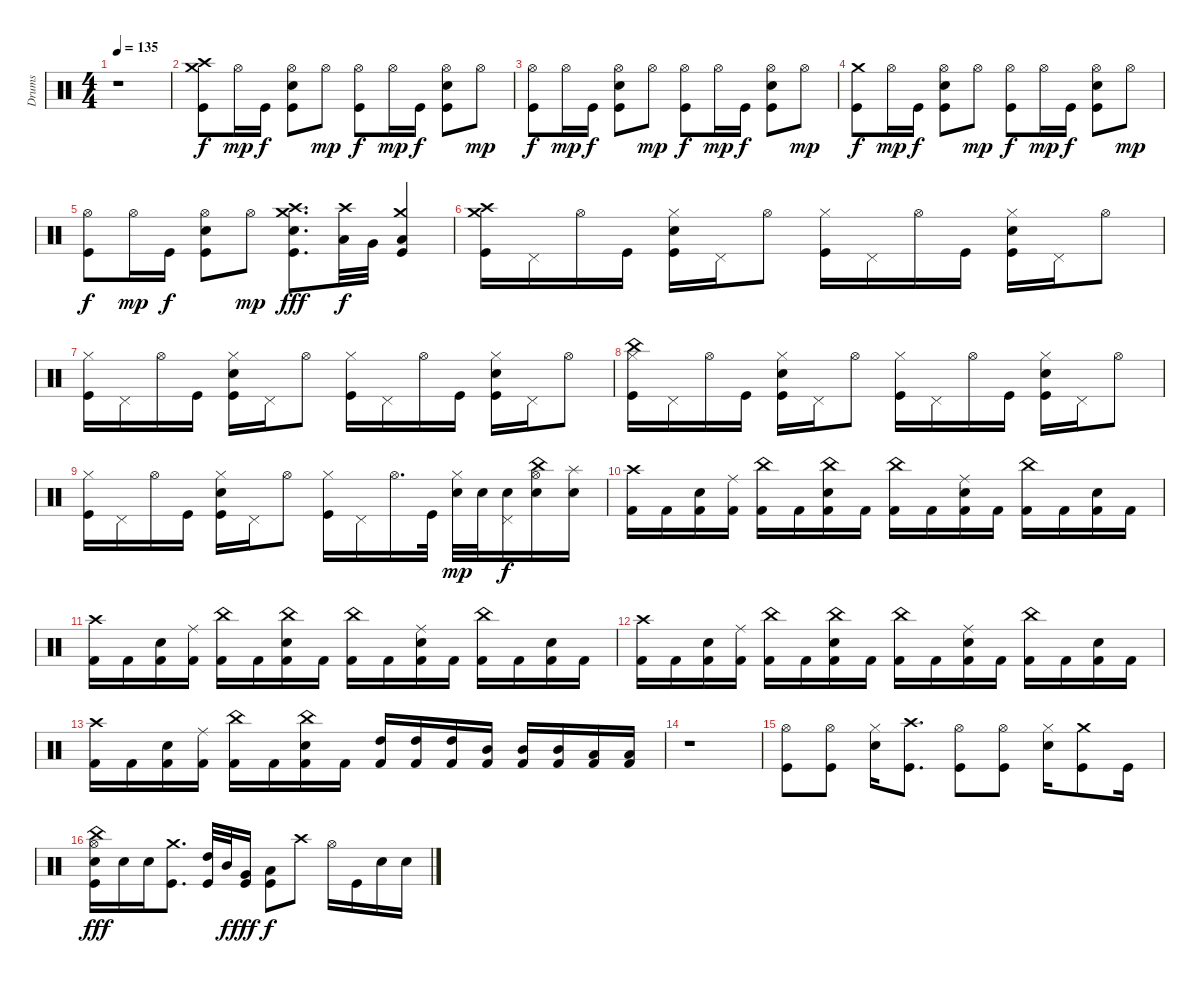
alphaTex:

\track ("Drums" "Drums") {instrument percussion}
\staff {score}
\articulation defaults
\ts (4 4)
\tempo 135
\clef neutral
\ks c
r.1{dy f} |
("Kick (hit)" "Crash medium (hit)" "Crash high (hit)").8 "Hi-Hat (open)".16{dy mp} "Kick (hit)".16{dy f} ("Snare (hit) 2" "Kick (hit)" "Hi-Hat (open)").8 "Hi-Hat (open)".8{dy mp} ("Kick (hit)" "Hi-Hat (open)").8{dy f} "Hi-Hat (open)".16{dy mp} "Kick (hit)".16{dy f} ("Snare (hit) 2" "Kick (hit)" "Hi-Hat (open)").8 "Hi-Hat (open)".8{dy mp} |
("Hi-Hat (open)" "Kick (hit)").8{dy f} "Hi-Hat (open)".16{dy mp} "Kick (hit)".16{dy f} ("Hi-Hat (open)" "Snare (hit) 2" "Kick (hit)").8 "Hi-Hat (open)".8{dy mp} ("Hi-Hat (open)" "Kick (hit)").8{dy f} "Hi-Hat (open)".16{dy mp} "Kick (hit)".16{dy f} ("Hi-Hat (open)" "Snare (hit) 2" "Kick (hit)").8 "Hi-Hat (open)".8{dy mp} |
("Crash medium (hit)" "Kick (hit)").8{dy f} "Hi-Hat (open)".16{dy mp} "Kick (hit)".16{dy f} ("Snare (hit) 2" "Kick (hit)" "Hi-Hat (open)").8 "Hi-Hat (open)".8{dy mp} ("Kick (hit)" "Hi-Hat (open)").8{dy f} "Hi-Hat (open)".16{dy mp} "Kick (hit)".16{dy f} ("Snare (hit) 2" "Kick (hit)" "Hi-Hat (open)").8 "Hi-Hat (open)".8{dy mp} |
("Kick (hit)" "Hi-Hat (open)").8{dy f} "Hi-Hat (open)".16{dy mp} "Kick (hit)".16{dy f} ("Snare (hit) 2" "Kick (hit)" "Hi-Hat (open)").8 "Hi-Hat (open)".8{dy mp} ("Crash medium (hit)" "Crash high (hit)" "Snare (hit) 2" "Kick (hit)").8{d dy fff} ("Crash high (hit)" "Low Tom (hit)").32{dy f} "Very Low Tom (hit)".32 ("Crash medium (hit)" "Kick (hit)" "Low Floor Tom (hit)").4 |
("Crash medium (hit)" "Crash high (hit)" "Kick (hit)").16 "Pedal Hi-Hat (hit)".16 "Hi-Hat (open)".16 "Kick (hit)".16 ("Hi-Hat (closed)" "Snare (hit) 2" "Kick (hit)").16 "Pedal Hi-Hat (hit)".16 "Hi-Hat (open)".8 ("Hi-Hat (closed)" "Kick (hit)").16 "Pedal Hi-Hat (hit)".16 "Hi-Hat (open)".16 "Kick (hit)".16 ("Hi-Hat (closed)" "Snare (hit) 2" "Kick (hit)").16 "Pedal Hi-Hat (hit)".16 "Hi-Hat (open)".8 |
("Hi-Hat (closed)" "Kick (hit)").16 "Pedal Hi-Hat (hit)".16 "Hi-Hat (open)".16 "Kick (hit)".16 ("Hi-Hat (closed)" "Snare (hit) 2" "Kick (hit)").16 "Pedal Hi-Hat (hit)".16 "Hi-Hat (open)".8 ("Hi-Hat (closed)" "Kick (hit)").16 "Pedal Hi-Hat (hit)".16 "Hi-Hat (open)".16 "Kick (hit)".16 ("Hi-Hat (closed)" "Snare (hit) 2" "Kick (hit)").16 "Pedal Hi-Hat (hit)".16 "Hi-Hat (open)".8 |
("China (hit)" "Hi-Hat (closed)" "Kick (hit)").16 "Pedal Hi-Hat (hit)".16 "Hi-Hat (open)".16 "Kick (hit)".16 ("Hi-Hat (closed)" "Snare (hit) 2" "Kick (hit)").16 "Pedal Hi-Hat (hit)".16 "Hi-Hat (open)".8 ("Hi-Hat (closed)" "Kick (hit)").16 "Pedal Hi-Hat (hit)".16 "Hi-Hat (open)".16 "Kick (hit)".16 ("Hi-Hat (closed)" "Snare (hit) 2" "Kick (hit)").16 "Pedal Hi-Hat (hit)".16 "Hi-Hat (open)".8 |
("Hi-Hat (closed)" "Kick (hit)").16 "Pedal Hi-Hat (hit)".16 "Hi-Hat (open)".16 "Kick (hit)".16 ("Hi-Hat (closed)" "Snare (hit) 2" "Kick (hit)").16 "Pedal Hi-Hat (hit)".16 "Hi-Hat (open)".8 ("Hi-Hat (closed)" "Kick (hit)").16 "Pedal Hi-Hat (hit)".16 "Hi-Hat (open)".16{d} "Kick (hit)".32 ("Hi-Hat (closed)" "Snare (hit) 2").32{dy mp} "Snare (hit) 2".32 ("Pedal Hi-Hat (hit)" "Snare (hit) 2").16{dy f} ("Hi-Hat (open)" "China (hit)" "Snare (hit) 2").16 ("Splash (hit)" "Snare (hit) 2").16 |
("Crash high (hit)" "Kick (hit) 2").16 "Kick (hit) 2".16 ("Snare (hit) 2" "Kick (hit) 2").16 ("Ride (middle)" "Kick (hit) 2").16 ("China (hit)" "Kick (hit) 2").16 "Kick (hit) 2".16 ("China (hit)" "Snare (hit) 2" "Kick (hit) 2").16 "Kick (hit) 2".16 ("China (hit)" "Kick (hit) 2").16 "Kick (hit) 2".16 ("Ride (middle)" "Snare (hit) 2" "Kick (hit) 2").16 "Kick (hit) 2".16 ("China (hit)" "Kick (hit) 2").16 "Kick (hit) 2".16 ("Snare (hit) 2" "Kick (hit) 2").16 "Kick (hit) 2".16 |
("Crash high (hit)" "Kick (hit) 2").16 "Kick (hit) 2".16 ("Snare (hit) 2" "Kick (hit) 2").16 ("Ride (middle)" "Kick (hit) 2").16 ("China (hit)" "Kick (hit) 2").16 "Kick (hit) 2".16 ("China (hit)" "Snare (hit) 2" "Kick (hit) 2").16 "Kick (hit) 2".16 ("China (hit)" "Kick (hit) 2").16 "Kick (hit) 2".16 ("Ride (middle)" "Snare (hit) 2" "Kick (hit) 2").16 "Kick (hit) 2".16 ("China (hit)" "Kick (hit) 2").16 "Kick (hit) 2".16 ("Snare (hit) 2" "Kick (hit) 2").16 "Kick (hit) 2".16 |
("Crash high (hit)" "Kick (hit) 2").16 "Kick (hit) 2".16 ("Snare (hit) 2" "Kick (hit) 2").16 ("Ride (middle)" "Kick (hit) 2").16 ("China (hit)" "Kick (hit) 2").16 "Kick (hit) 2".16 ("China (hit)" "Snare (hit) 2" "Kick (hit) 2").16 "Kick (hit) 2".16 ("China (hit)" "Kick (hit) 2").16 "Kick (hit) 2".16 ("Ride (middle)" "Snare (hit) 2" "Kick (hit) 2").16 "Kick (hit) 2".16 ("China (hit)" "Kick (hit) 2").16 "Kick (hit) 2".16 ("Snare (hit) 2" "Kick (hit) 2").16 "Kick (hit) 2".16 |
("Crash high (hit)" "Kick (hit) 2").16 "Kick (hit) 2".16 ("Snare (hit) 2" "Kick (hit) 2").16 ("Ride (middle)" "Kick (hit) 2").16 ("China (hit)" "Kick (hit) 2").16 "Kick (hit) 2".16 ("China (hit)" "Snare (hit) 2" "Kick (hit) 2").16 "Kick (hit) 2".16 ("High Tom (hit)" "Kick (hit) 2").16 ("High Tom (hit)" "Kick (hit) 2").16 ("High Tom (hit)" "Kick (hit) 2").16 ("Mid Tom (hit)" "Kick (hit) 2").16 ("Mid Tom (hit)" "Kick (hit) 2").16 ("Mid Tom (hit)" "Kick (hit) 2").16 ("Low Tom (hit)" "Kick (hit) 2").16 ("Low Tom (hit)" "Kick (hit) 2").16 |
r.1 |
("Hi-Hat (open)" "Kick (hit)").8 ("Kick (hit)" "Hi-Hat (open)").8 ("Hi-Hat (closed)" "Snare (hit) 2").16 ("Crash high (hit)" "Kick (hit)").8{d} ("Hi-Hat (open)" "Kick (hit)").8 ("Hi-Hat (open)" "Kick (hit)").8 ("Hi-Hat (closed)" "Snare (hit) 2").16 ("Crash medium (hit)" "Kick (hit)").8 "Kick (hit)".16 |
("Hi-Hat (open)" "China (hit)" "Kick (hit)" "Snare (hit) 2").16{dy fff} "Snare (hit) 2".16 "Snare (hit) 2".16 ("Kick (hit)" "Crash medium (hit)").8{d} ("Kick (hit)" "High Tom (hit)").32 "Mid Tom (hit)".32{dy f} ("Kick (hit)" "Very Low Tom (hit)").16{dy fff} ("Low Floor Tom (hit)" "Kick (hit)").8{dy f} "Crash high (hit)".8 "Hi-Hat (open)".16 "Kick (hit)".16 "Snare (hit) 2".16 "Snare (hit) 2".16
